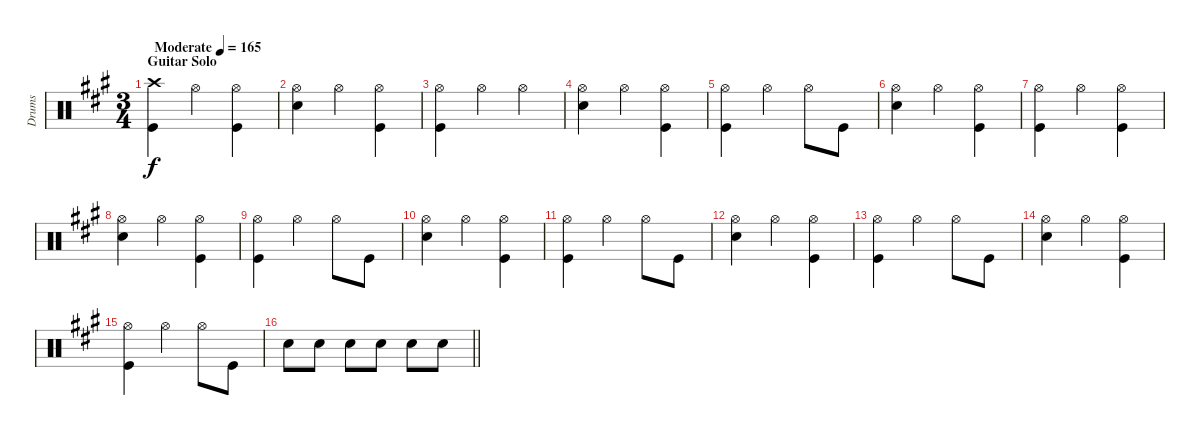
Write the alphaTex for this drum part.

\track ("Drums" "Drums") {instrument percussion}
\staff {score}
\articulation defaults
\ts (3 4)
\section ("" "Guitar Solo")
\tempo (165 "Moderate")
\clef neutral
\ks a
("Crash high (hit)" "Kick (hit)").4{dy f} "Hi-Hat (open)".4 ("Hi-Hat (open)" "Kick (hit)").4 |
("Hi-Hat (open)" "Snare (hit) 2").4 "Hi-Hat (open)".4 ("Hi-Hat (open)" "Kick (hit)").4 |
("Hi-Hat (open)" "Kick (hit)").4 "Hi-Hat (open)".4 "Hi-Hat (open)".4 |
("Hi-Hat (open)" "Snare (hit) 2").4 "Hi-Hat (open)".4 ("Hi-Hat (open)" "Kick (hit)").4 |
("Hi-Hat (open)" "Kick (hit)").4 "Hi-Hat (open)".4 "Hi-Hat (open)".8 "Kick (hit)".8 |
("Hi-Hat (open)" "Snare (hit) 2").4 "Hi-Hat (open)".4 ("Hi-Hat (open)" "Kick (hit)").4 |
("Hi-Hat (open)" "Kick (hit)").4 "Hi-Hat (open)".4 ("Hi-Hat (open)" "Kick (hit)").4 |
("Hi-Hat (open)" "Snare (hit) 2").4 "Hi-Hat (open)".4 ("Hi-Hat (open)" "Kick (hit)").4 |
("Hi-Hat (open)" "Kick (hit)").4 "Hi-Hat (open)".4 "Hi-Hat (open)".8 "Kick (hit)".8 |
("Hi-Hat (open)" "Snare (hit) 2").4 "Hi-Hat (open)".4 ("Hi-Hat (open)" "Kick (hit)").4 |
("Hi-Hat (open)" "Kick (hit)").4 "Hi-Hat (open)".4 "Hi-Hat (open)".8 "Kick (hit)".8 |
("Hi-Hat (open)" "Snare (hit) 2").4 "Hi-Hat (open)".4 ("Hi-Hat (open)" "Kick (hit)").4 |
("Hi-Hat (open)" "Kick (hit)").4 "Hi-Hat (open)".4 "Hi-Hat (open)".8 "Kick (hit)".8 |
("Hi-Hat (open)" "Snare (hit) 2").4 "Hi-Hat (open)".4 ("Hi-Hat (open)" "Kick (hit)").4 |
("Hi-Hat (open)" "Kick (hit)").4 "Hi-Hat (open)".4 "Hi-Hat (open)".8 "Kick (hit)".8 |
\barLineRight lightlight "Snare (hit) 2".8 "Snare (hit) 2".8 "Snare (hit) 2".8 "Snare (hit) 2".8 "Snare (hit) 2".8 "Snare (hit) 2".8
